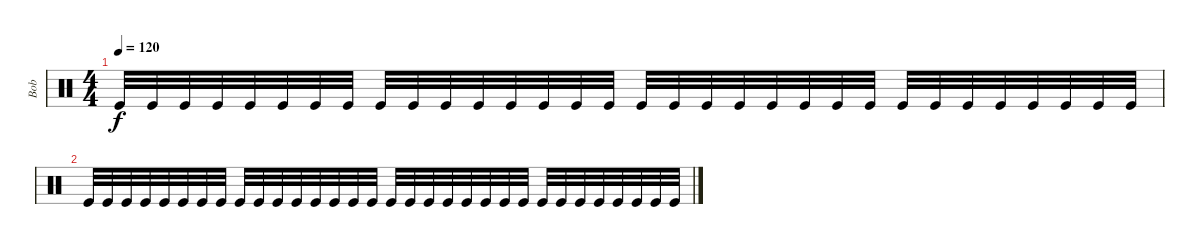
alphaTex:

\track ("Bob" "Bob") {instrument percussion}
\staff {score}
\articulation defaults
\ts (4 4)
\tempo 120
\clef neutral
\ks c "Kick (hit)".32{dy f} "Kick (hit)".32 "Kick (hit)".32 "Kick (hit)".32 "Kick (hit)".32 "Kick (hit)".32 "Kick (hit)".32 "Kick (hit)".32 "Kick (hit)".32 "Kick (hit)".32 "Kick (hit)".32 "Kick (hit)".32 "Kick (hit)".32 "Kick (hit)".32 "Kick (hit)".32 "Kick (hit)".32 "Kick (hit)".32 "Kick (hit)".32 "Kick (hit)".32 "Kick (hit)".32 "Kick (hit)".32 "Kick (hit)".32 "Kick (hit)".32 "Kick (hit)".32 "Kick (hit)".32 "Kick (hit)".32 "Kick (hit)".32 "Kick (hit)".32 "Kick (hit)".32 "Kick (hit)".32 "Kick (hit)".32 "Kick (hit)".32
|
"Kick (hit)".32 "Kick (hit)".32 "Kick (hit)".32 "Kick (hit)".32 "Kick (hit)".32 "Kick (hit)".32 "Kick (hit)".32 "Kick (hit)".32 "Kick (hit)".32 "Kick (hit)".32 "Kick (hit)".32 "Kick (hit)".32 "Kick (hit)".32 "Kick (hit)".32 "Kick (hit)".32 "Kick (hit)".32 "Kick (hit)".32 "Kick (hit)".32 "Kick (hit)".32 "Kick (hit)".32 "Kick (hit)".32 "Kick (hit)".32 "Kick (hit)".32 "Kick (hit)".32 "Kick (hit)".32 "Kick (hit)".32 "Kick (hit)".32 "Kick (hit)".32 "Kick (hit)".32 "Kick (hit)".32 "Kick (hit)".32 "Kick (hit)".32
